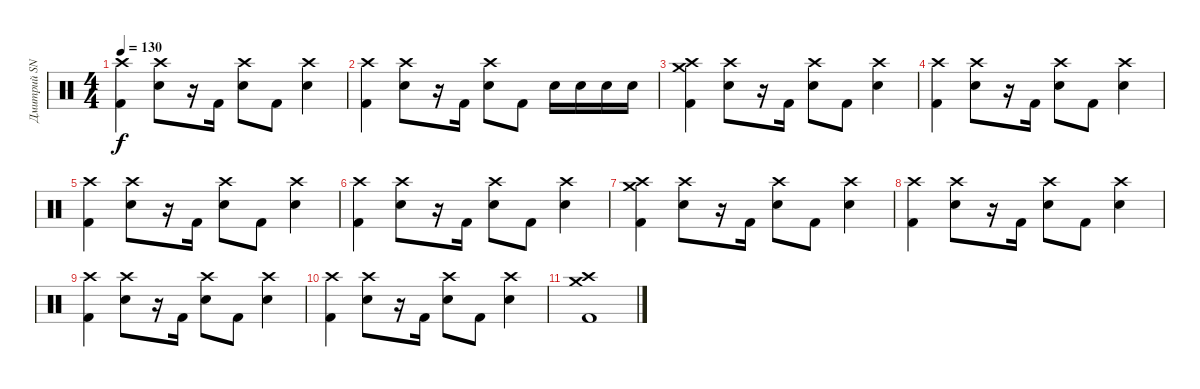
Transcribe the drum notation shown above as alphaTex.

\track ("Дмитрий SNAKE Хакимов" "Дмитрий SN") {instrument percussion}
\staff {score}
\articulation defaults
\ts (4 4)
\tempo 130
\clef neutral
\ks c
("Crash high (hit)" "Kick (hit) 2").4{dy f} ("Crash high (hit)" "Snare (hit) 2").8 r.16 "Kick (hit) 2".16 ("Crash high (hit)" "Snare (hit) 2").8 "Kick (hit) 2".8 ("Crash high (hit)" "Snare (hit) 2").4 |
("Crash high (hit)" "Kick (hit) 2").4 ("Crash high (hit)" "Snare (hit) 2").8 r.16 "Kick (hit) 2".16 ("Crash high (hit)" "Snare (hit) 2").8 "Kick (hit) 2".8 "Snare (hit) 2".16 "Snare (hit) 2".16 "Snare (hit) 2".16 "Snare (hit) 2".16 |
("Crash high (hit)" "Crash medium (hit)" "Kick (hit) 2").4 ("Crash high (hit)" "Snare (hit) 2").8 r.16 "Kick (hit) 2".16 ("Crash high (hit)" "Snare (hit) 2").8 "Kick (hit) 2".8 ("Crash high (hit)" "Snare (hit) 2").4 |
("Crash high (hit)" "Kick (hit) 2").4 ("Crash high (hit)" "Snare (hit) 2").8 r.16 "Kick (hit) 2".16 ("Crash high (hit)" "Snare (hit) 2").8 "Kick (hit) 2".8 ("Crash high (hit)" "Snare (hit) 2").4 |
("Crash high (hit)" "Kick (hit) 2").4 ("Crash high (hit)" "Snare (hit) 2").8 r.16 "Kick (hit) 2".16 ("Crash high (hit)" "Snare (hit) 2").8 "Kick (hit) 2".8 ("Crash high (hit)" "Snare (hit) 2").4 |
("Crash high (hit)" "Kick (hit) 2").4 ("Crash high (hit)" "Snare (hit) 2").8 r.16 "Kick (hit) 2".16 ("Crash high (hit)" "Snare (hit) 2").8 "Kick (hit) 2".8 ("Crash high (hit)" "Snare (hit) 2").4 |
("Crash high (hit)" "Crash medium (hit)" "Kick (hit) 2").4 ("Crash high (hit)" "Snare (hit) 2").8 r.16 "Kick (hit) 2".16 ("Crash high (hit)" "Snare (hit) 2").8 "Kick (hit) 2".8 ("Crash high (hit)" "Snare (hit) 2").4 |
("Crash high (hit)" "Kick (hit) 2").4 ("Crash high (hit)" "Snare (hit) 2").8 r.16 "Kick (hit) 2".16 ("Crash high (hit)" "Snare (hit) 2").8 "Kick (hit) 2".8 ("Crash high (hit)" "Snare (hit) 2").4 |
("Crash high (hit)" "Kick (hit) 2").4 ("Crash high (hit)" "Snare (hit) 2").8 r.16 "Kick (hit) 2".16 ("Crash high (hit)" "Snare (hit) 2").8 "Kick (hit) 2".8 ("Crash high (hit)" "Snare (hit) 2").4 |
("Crash high (hit)" "Kick (hit) 2").4 ("Crash high (hit)" "Snare (hit) 2").8 r.16 "Kick (hit) 2".16 ("Crash high (hit)" "Snare (hit) 2").8 "Kick (hit) 2".8 ("Crash high (hit)" "Snare (hit) 2").4 |
("Crash high (hit)" "Crash medium (hit)" "Kick (hit) 2").1
